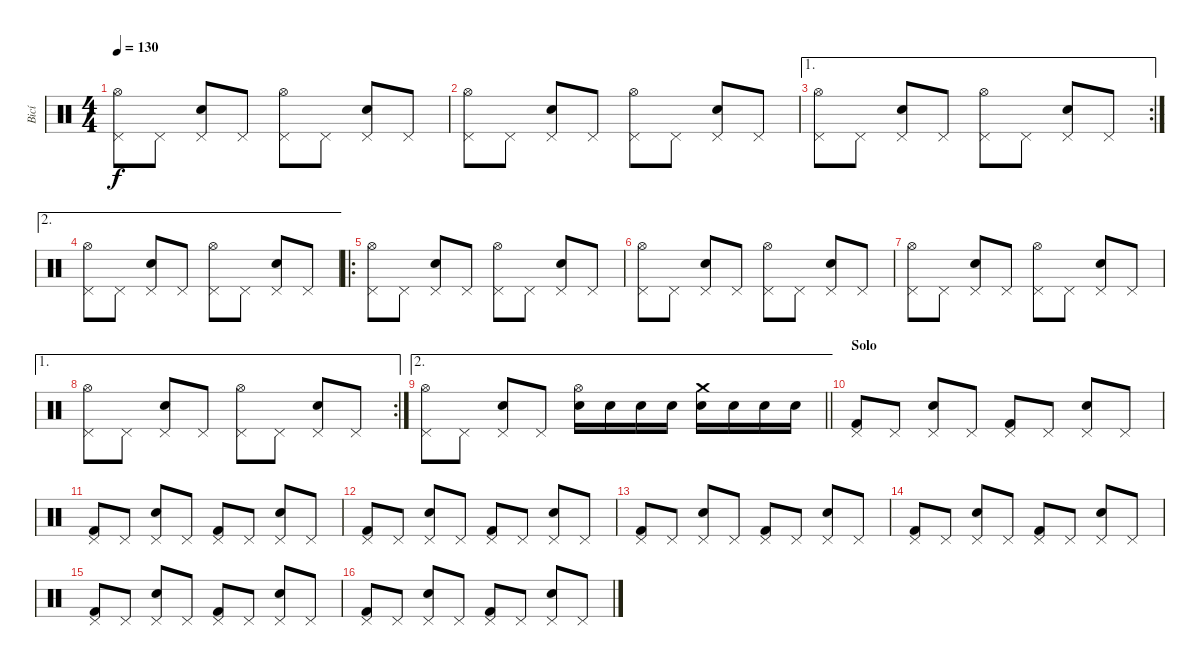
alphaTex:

\track ("Bicí" "Bicí") {instrument percussion}
\staff {score}
\articulation defaults
\ts (4 4)
\tempo 130
\clef neutral
\ks c
("Hi-Hat (open)" "Pedal Hi-Hat (hit)").8{dy f} "Pedal Hi-Hat (hit)".8 ("Electric Snare (hit)" "Pedal Hi-Hat (hit)").8 "Pedal Hi-Hat (hit)".8 ("Hi-Hat (open)" "Pedal Hi-Hat (hit)").8 "Pedal Hi-Hat (hit)".8 ("Electric Snare (hit)" "Pedal Hi-Hat (hit)").8 "Pedal Hi-Hat (hit)".8 |
("Hi-Hat (open)" "Pedal Hi-Hat (hit)").8 "Pedal Hi-Hat (hit)".8 ("Electric Snare (hit)" "Pedal Hi-Hat (hit)").8 "Pedal Hi-Hat (hit)".8 ("Hi-Hat (open)" "Pedal Hi-Hat (hit)").8 "Pedal Hi-Hat (hit)".8 ("Electric Snare (hit)" "Pedal Hi-Hat (hit)").8 "Pedal Hi-Hat (hit)".8 |
\ae 1
\rc 2
("Hi-Hat (open)" "Pedal Hi-Hat (hit)").8 "Pedal Hi-Hat (hit)".8 ("Electric Snare (hit)" "Pedal Hi-Hat (hit)").8 "Pedal Hi-Hat (hit)".8 ("Hi-Hat (open)" "Pedal Hi-Hat (hit)").8 "Pedal Hi-Hat (hit)".8 ("Electric Snare (hit)" "Pedal Hi-Hat (hit)").8 "Pedal Hi-Hat (hit)".8 |
\ae 2
("Hi-Hat (open)" "Pedal Hi-Hat (hit)").8 "Pedal Hi-Hat (hit)".8 ("Electric Snare (hit)" "Pedal Hi-Hat (hit)").8 "Pedal Hi-Hat (hit)".8 ("Hi-Hat (open)" "Pedal Hi-Hat (hit)").8 "Pedal Hi-Hat (hit)".8 ("Electric Snare (hit)" "Pedal Hi-Hat (hit)").8 "Pedal Hi-Hat (hit)".8 |
\ro
("Hi-Hat (open)" "Pedal Hi-Hat (hit)").8 "Pedal Hi-Hat (hit)".8 ("Electric Snare (hit)" "Pedal Hi-Hat (hit)").8 "Pedal Hi-Hat (hit)".8 ("Hi-Hat (open)" "Pedal Hi-Hat (hit)").8 "Pedal Hi-Hat (hit)".8 ("Electric Snare (hit)" "Pedal Hi-Hat (hit)").8 "Pedal Hi-Hat (hit)".8 |
("Hi-Hat (open)" "Pedal Hi-Hat (hit)").8 "Pedal Hi-Hat (hit)".8 ("Electric Snare (hit)" "Pedal Hi-Hat (hit)").8 "Pedal Hi-Hat (hit)".8 ("Hi-Hat (open)" "Pedal Hi-Hat (hit)").8 "Pedal Hi-Hat (hit)".8 ("Electric Snare (hit)" "Pedal Hi-Hat (hit)").8 "Pedal Hi-Hat (hit)".8 |
("Hi-Hat (open)" "Pedal Hi-Hat (hit)").8 "Pedal Hi-Hat (hit)".8 ("Electric Snare (hit)" "Pedal Hi-Hat (hit)").8 "Pedal Hi-Hat (hit)".8 ("Hi-Hat (open)" "Pedal Hi-Hat (hit)").8 "Pedal Hi-Hat (hit)".8 ("Electric Snare (hit)" "Pedal Hi-Hat (hit)").8 "Pedal Hi-Hat (hit)".8 |
\ae 1
\rc 2
("Hi-Hat (open)" "Pedal Hi-Hat (hit)").8 "Pedal Hi-Hat (hit)".8 ("Electric Snare (hit)" "Pedal Hi-Hat (hit)").8 "Pedal Hi-Hat (hit)".8 ("Hi-Hat (open)" "Pedal Hi-Hat (hit)").8 "Pedal Hi-Hat (hit)".8 ("Electric Snare (hit)" "Pedal Hi-Hat (hit)").8 "Pedal Hi-Hat (hit)".8 |
\ae 2
\barLineRight lightlight
("Hi-Hat (open)" "Pedal Hi-Hat (hit)").8 "Pedal Hi-Hat (hit)".8 ("Electric Snare (hit)" "Pedal Hi-Hat (hit)").8 "Pedal Hi-Hat (hit)".8 ("Hi-Hat (open)" "Electric Snare (hit)").16 "Electric Snare (hit)".16 "Electric Snare (hit)".16 "Electric Snare (hit)".16 ("Crash medium (hit)" "Electric Snare (hit)").16 "Electric Snare (hit)".16 "Electric Snare (hit)".16 "Electric Snare (hit)".16 |
\section ("" "Solo")
("Kick (hit) 2" "Pedal Hi-Hat (hit)").8 "Pedal Hi-Hat (hit)".8 ("Snare (hit) 2" "Pedal Hi-Hat (hit)").8 "Pedal Hi-Hat (hit)".8 ("Kick (hit) 2" "Pedal Hi-Hat (hit)").8 "Pedal Hi-Hat (hit)".8 ("Snare (hit) 2" "Pedal Hi-Hat (hit)").8 "Pedal Hi-Hat (hit)".8 |
("Kick (hit) 2" "Pedal Hi-Hat (hit)").8 "Pedal Hi-Hat (hit)".8 ("Snare (hit) 2" "Pedal Hi-Hat (hit)").8 "Pedal Hi-Hat (hit)".8 ("Kick (hit) 2" "Pedal Hi-Hat (hit)").8 "Pedal Hi-Hat (hit)".8 ("Snare (hit) 2" "Pedal Hi-Hat (hit)").8 "Pedal Hi-Hat (hit)".8 |
("Kick (hit) 2" "Pedal Hi-Hat (hit)").8 "Pedal Hi-Hat (hit)".8 ("Snare (hit) 2" "Pedal Hi-Hat (hit)").8 "Pedal Hi-Hat (hit)".8 ("Kick (hit) 2" "Pedal Hi-Hat (hit)").8 "Pedal Hi-Hat (hit)".8 ("Snare (hit) 2" "Pedal Hi-Hat (hit)").8 "Pedal Hi-Hat (hit)".8 |
("Kick (hit) 2" "Pedal Hi-Hat (hit)").8 "Pedal Hi-Hat (hit)".8 ("Snare (hit) 2" "Pedal Hi-Hat (hit)").8 "Pedal Hi-Hat (hit)".8 ("Kick (hit) 2" "Pedal Hi-Hat (hit)").8 "Pedal Hi-Hat (hit)".8 ("Snare (hit) 2" "Pedal Hi-Hat (hit)").8 "Pedal Hi-Hat (hit)".8 |
("Kick (hit) 2" "Pedal Hi-Hat (hit)").8 "Pedal Hi-Hat (hit)".8 ("Snare (hit) 2" "Pedal Hi-Hat (hit)").8 "Pedal Hi-Hat (hit)".8 ("Kick (hit) 2" "Pedal Hi-Hat (hit)").8 "Pedal Hi-Hat (hit)".8 ("Snare (hit) 2" "Pedal Hi-Hat (hit)").8 "Pedal Hi-Hat (hit)".8 |
("Kick (hit) 2" "Pedal Hi-Hat (hit)").8 "Pedal Hi-Hat (hit)".8 ("Snare (hit) 2" "Pedal Hi-Hat (hit)").8 "Pedal Hi-Hat (hit)".8 ("Kick (hit) 2" "Pedal Hi-Hat (hit)").8 "Pedal Hi-Hat (hit)".8 ("Snare (hit) 2" "Pedal Hi-Hat (hit)").8 "Pedal Hi-Hat (hit)".8 |
("Kick (hit) 2" "Pedal Hi-Hat (hit)").8 "Pedal Hi-Hat (hit)".8 ("Snare (hit) 2" "Pedal Hi-Hat (hit)").8 "Pedal Hi-Hat (hit)".8 ("Kick (hit) 2" "Pedal Hi-Hat (hit)").8 "Pedal Hi-Hat (hit)".8 ("Snare (hit) 2" "Pedal Hi-Hat (hit)").8 "Pedal Hi-Hat (hit)".8
